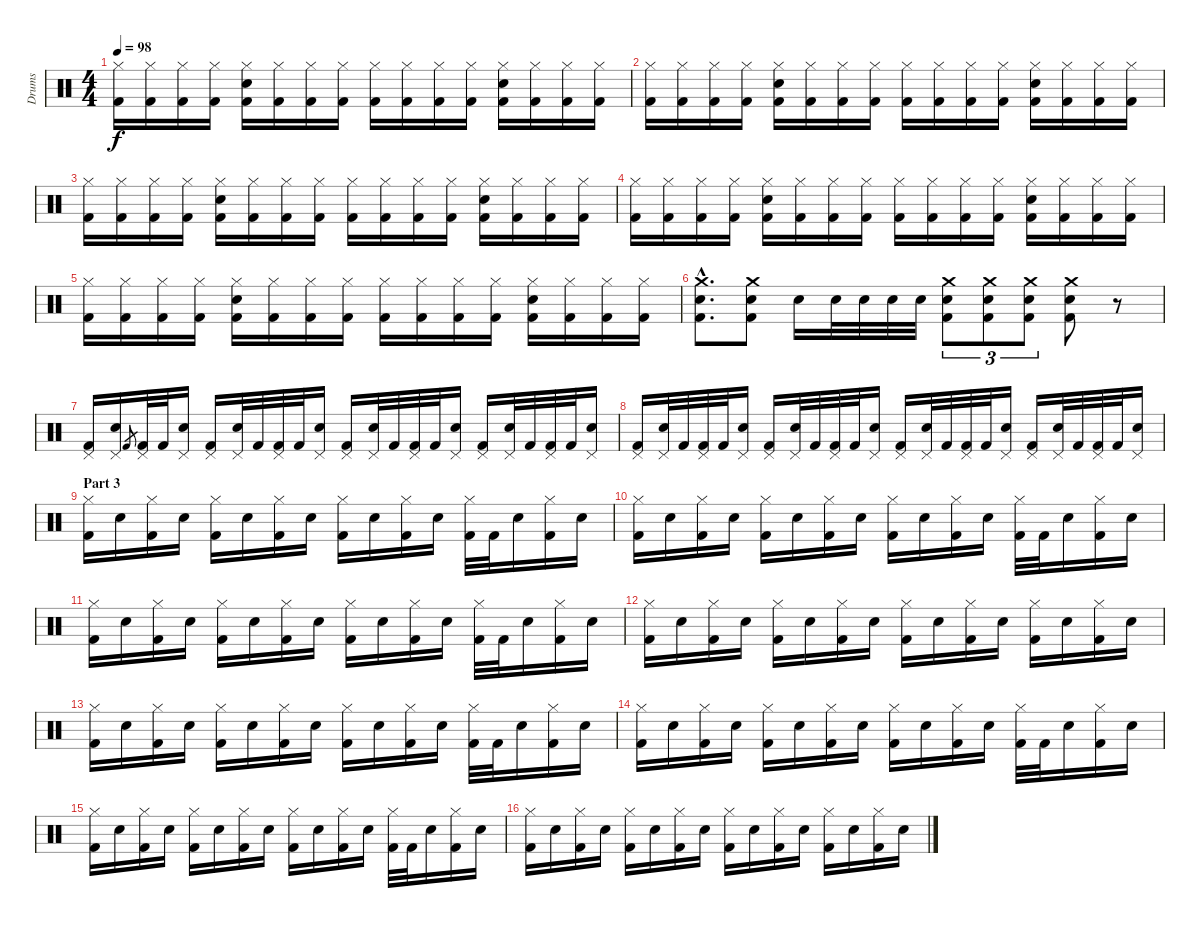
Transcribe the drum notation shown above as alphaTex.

\track ("Drums" "Drums") {instrument percussion}
\staff {score}
\articulation defaults
\ts (4 4)
\tempo 98
\clef neutral
\ks c
("Hi-Hat (closed)" "Kick (hit) 2").16{dy f} ("Hi-Hat (closed)" "Kick (hit) 2").16 ("Hi-Hat (closed)" "Kick (hit) 2").16 ("Hi-Hat (closed)" "Kick (hit) 2").16 ("Hi-Hat (closed)" "Electric Snare (hit)" "Kick (hit) 2").16 ("Hi-Hat (closed)" "Kick (hit) 2").16 ("Hi-Hat (closed)" "Kick (hit) 2").16 ("Hi-Hat (closed)" "Kick (hit) 2").16 ("Hi-Hat (closed)" "Kick (hit) 2").16 ("Hi-Hat (closed)" "Kick (hit) 2").16 ("Hi-Hat (closed)" "Kick (hit) 2").16 ("Hi-Hat (closed)" "Kick (hit) 2").16 ("Hi-Hat (closed)" "Electric Snare (hit)" "Kick (hit) 2").16 ("Hi-Hat (closed)" "Kick (hit) 2").16 ("Hi-Hat (closed)" "Kick (hit) 2").16 ("Hi-Hat (closed)" "Kick (hit) 2").16 |
("Hi-Hat (closed)" "Kick (hit) 2").16 ("Hi-Hat (closed)" "Kick (hit) 2").16 ("Hi-Hat (closed)" "Kick (hit) 2").16 ("Hi-Hat (closed)" "Kick (hit) 2").16 ("Hi-Hat (closed)" "Electric Snare (hit)" "Kick (hit) 2").16 ("Hi-Hat (closed)" "Kick (hit) 2").16 ("Hi-Hat (closed)" "Kick (hit) 2").16 ("Hi-Hat (closed)" "Kick (hit) 2").16 ("Hi-Hat (closed)" "Kick (hit) 2").16 ("Hi-Hat (closed)" "Kick (hit) 2").16 ("Hi-Hat (closed)" "Kick (hit) 2").16 ("Hi-Hat (closed)" "Kick (hit) 2").16 ("Hi-Hat (closed)" "Electric Snare (hit)" "Kick (hit) 2").16 ("Hi-Hat (closed)" "Kick (hit) 2").16 ("Hi-Hat (closed)" "Kick (hit) 2").16 ("Hi-Hat (closed)" "Kick (hit) 2").16 |
("Hi-Hat (closed)" "Kick (hit) 2").16 ("Hi-Hat (closed)" "Kick (hit) 2").16 ("Hi-Hat (closed)" "Kick (hit) 2").16 ("Hi-Hat (closed)" "Kick (hit) 2").16 ("Hi-Hat (closed)" "Electric Snare (hit)" "Kick (hit) 2").16 ("Hi-Hat (closed)" "Kick (hit) 2").16 ("Hi-Hat (closed)" "Kick (hit) 2").16 ("Hi-Hat (closed)" "Kick (hit) 2").16 ("Hi-Hat (closed)" "Kick (hit) 2").16 ("Hi-Hat (closed)" "Kick (hit) 2").16 ("Hi-Hat (closed)" "Kick (hit) 2").16 ("Hi-Hat (closed)" "Kick (hit) 2").16 ("Hi-Hat (closed)" "Electric Snare (hit)" "Kick (hit) 2").16 ("Hi-Hat (closed)" "Kick (hit) 2").16 ("Hi-Hat (closed)" "Kick (hit) 2").16 ("Hi-Hat (closed)" "Kick (hit) 2").16 |
("Hi-Hat (closed)" "Kick (hit) 2").16 ("Hi-Hat (closed)" "Kick (hit) 2").16 ("Hi-Hat (closed)" "Kick (hit) 2").16 ("Hi-Hat (closed)" "Kick (hit) 2").16 ("Hi-Hat (closed)" "Electric Snare (hit)" "Kick (hit) 2").16 ("Hi-Hat (closed)" "Kick (hit) 2").16 ("Hi-Hat (closed)" "Kick (hit) 2").16 ("Hi-Hat (closed)" "Kick (hit) 2").16 ("Hi-Hat (closed)" "Kick (hit) 2").16 ("Hi-Hat (closed)" "Kick (hit) 2").16 ("Hi-Hat (closed)" "Kick (hit) 2").16 ("Hi-Hat (closed)" "Kick (hit) 2").16 ("Hi-Hat (closed)" "Electric Snare (hit)" "Kick (hit) 2").16 ("Hi-Hat (closed)" "Kick (hit) 2").16 ("Hi-Hat (closed)" "Kick (hit) 2").16 ("Hi-Hat (closed)" "Kick (hit) 2").16 |
("Hi-Hat (closed)" "Kick (hit) 2").16 ("Hi-Hat (closed)" "Kick (hit) 2").16 ("Hi-Hat (closed)" "Kick (hit) 2").16 ("Hi-Hat (closed)" "Kick (hit) 2").16 ("Hi-Hat (closed)" "Electric Snare (hit)" "Kick (hit) 2").16 ("Hi-Hat (closed)" "Kick (hit) 2").16 ("Hi-Hat (closed)" "Kick (hit) 2").16 ("Hi-Hat (closed)" "Kick (hit) 2").16 ("Hi-Hat (closed)" "Kick (hit) 2").16 ("Hi-Hat (closed)" "Kick (hit) 2").16 ("Hi-Hat (closed)" "Kick (hit) 2").16 ("Hi-Hat (closed)" "Kick (hit) 2").16 ("Hi-Hat (closed)" "Electric Snare (hit)" "Kick (hit) 2").16 ("Hi-Hat (closed)" "Kick (hit) 2").16 ("Hi-Hat (closed)" "Kick (hit) 2").16 ("Hi-Hat (closed)" "Kick (hit) 2").16 |
("Crash medium (hit)"{hac} "Electric Snare (hit)"{hac} "Kick (hit) 2"{hac}).8{d} ("Crash medium (hit)" "Electric Snare (hit)" "Kick (hit) 2").8 "Electric Snare (hit)".16 "Electric Snare (hit)".32 "Electric Snare (hit)".32 "Electric Snare (hit)".32 "Electric Snare (hit)".32 ("Crash medium (hit)" "Electric Snare (hit)" "Kick (hit) 2").8{tu (3 2)} ("Crash medium (hit)" "Electric Snare (hit)" "Kick (hit) 2").8{tu (3 2)} ("Crash medium (hit)" "Electric Snare (hit)" "Kick (hit) 2").8{tu (3 2)} ("Crash medium (hit)" "Electric Snare (hit)" "Kick (hit) 2").8 r.8 |
("Pedal Hi-Hat (hit)" "Kick (hit) 2").16 ("Pedal Hi-Hat (hit)" "Electric Snare (hit)").16 "Kick (hit) 2".8{gr} ("Pedal Hi-Hat (hit)" "Kick (hit) 2").32 "Kick (hit) 2".32 ("Pedal Hi-Hat (hit)" "Electric Snare (hit)").16 ("Pedal Hi-Hat (hit)" "Kick (hit) 2").16 ("Pedal Hi-Hat (hit)" "Electric Snare (hit)").32 "Kick (hit) 2".32 ("Pedal Hi-Hat (hit)" "Kick (hit) 2").32 "Kick (hit) 2".32 ("Pedal Hi-Hat (hit)" "Electric Snare (hit)").16 ("Pedal Hi-Hat (hit)" "Kick (hit) 2").16 ("Pedal Hi-Hat (hit)" "Electric Snare (hit)").32 "Kick (hit) 2".32 ("Pedal Hi-Hat (hit)" "Kick (hit) 2").32 "Kick (hit) 2".32 ("Pedal Hi-Hat (hit)" "Electric Snare (hit)").16 ("Pedal Hi-Hat (hit)" "Kick (hit) 2").16 ("Pedal Hi-Hat (hit)" "Electric Snare (hit)").32 "Kick (hit) 2".32 ("Pedal Hi-Hat (hit)" "Kick (hit) 2").32 "Kick (hit) 2".32 ("Pedal Hi-Hat (hit)" "Electric Snare (hit)").16 |
("Pedal Hi-Hat (hit)" "Kick (hit) 2").16 ("Pedal Hi-Hat (hit)" "Electric Snare (hit)").32 "Kick (hit) 2".32 ("Pedal Hi-Hat (hit)" "Kick (hit) 2").32 "Kick (hit) 2".32 ("Pedal Hi-Hat (hit)" "Electric Snare (hit)").16 ("Pedal Hi-Hat (hit)" "Kick (hit) 2").16 ("Pedal Hi-Hat (hit)" "Electric Snare (hit)").32 "Kick (hit) 2".32 ("Pedal Hi-Hat (hit)" "Kick (hit) 2").32 "Kick (hit) 2".32 ("Pedal Hi-Hat (hit)" "Electric Snare (hit)").16 ("Pedal Hi-Hat (hit)" "Kick (hit) 2").16 ("Pedal Hi-Hat (hit)" "Electric Snare (hit)").32 "Kick (hit) 2".32 ("Pedal Hi-Hat (hit)" "Kick (hit) 2").32 "Kick (hit) 2".32 ("Pedal Hi-Hat (hit)" "Electric Snare (hit)").16 ("Pedal Hi-Hat (hit)" "Kick (hit) 2").16 ("Pedal Hi-Hat (hit)" "Electric Snare (hit)").32 "Kick (hit) 2".32 ("Pedal Hi-Hat (hit)" "Kick (hit) 2").32 "Kick (hit) 2".32 ("Pedal Hi-Hat (hit)" "Electric Snare (hit)").16 |
\section ("" "Part 3")
("Hi-Hat (closed)" "Kick (hit) 2").16 "Electric Snare (hit)".16 ("Hi-Hat (closed)" "Kick (hit) 2").16 "Electric Snare (hit)".16 ("Hi-Hat (closed)" "Kick (hit) 2").16 "Electric Snare (hit)".16 ("Hi-Hat (closed)" "Kick (hit) 2").16 "Electric Snare (hit)".16 ("Hi-Hat (closed)" "Kick (hit) 2").16 "Electric Snare (hit)".16 ("Hi-Hat (closed)" "Kick (hit) 2").16 "Electric Snare (hit)".16 ("Hi-Hat (closed)" "Kick (hit) 2").32 "Kick (hit) 2".32 "Electric Snare (hit)".16 ("Hi-Hat (closed)" "Kick (hit) 2").16 "Electric Snare (hit)".16 |
("Hi-Hat (closed)" "Kick (hit) 2").16 "Electric Snare (hit)".16 ("Hi-Hat (closed)" "Kick (hit) 2").16 "Electric Snare (hit)".16 ("Hi-Hat (closed)" "Kick (hit) 2").16 "Electric Snare (hit)".16 ("Hi-Hat (closed)" "Kick (hit) 2").16 "Electric Snare (hit)".16 ("Hi-Hat (closed)" "Kick (hit) 2").16 "Electric Snare (hit)".16 ("Hi-Hat (closed)" "Kick (hit) 2").16 "Electric Snare (hit)".16 ("Hi-Hat (closed)" "Kick (hit) 2").32 "Kick (hit) 2".32 "Electric Snare (hit)".16 ("Hi-Hat (closed)" "Kick (hit) 2").16 "Electric Snare (hit)".16 |
("Hi-Hat (closed)" "Kick (hit) 2").16 "Electric Snare (hit)".16 ("Hi-Hat (closed)" "Kick (hit) 2").16 "Electric Snare (hit)".16 ("Hi-Hat (closed)" "Kick (hit) 2").16 "Electric Snare (hit)".16 ("Hi-Hat (closed)" "Kick (hit) 2").16 "Electric Snare (hit)".16 ("Hi-Hat (closed)" "Kick (hit) 2").16 "Electric Snare (hit)".16 ("Hi-Hat (closed)" "Kick (hit) 2").16 "Electric Snare (hit)".16 ("Hi-Hat (closed)" "Kick (hit) 2").32 "Kick (hit) 2".32 "Electric Snare (hit)".16 ("Hi-Hat (closed)" "Kick (hit) 2").16 "Electric Snare (hit)".16 |
("Hi-Hat (closed)" "Kick (hit) 2").16 "Electric Snare (hit)".16 ("Hi-Hat (closed)" "Kick (hit) 2").16 "Electric Snare (hit)".16 ("Hi-Hat (closed)" "Kick (hit) 2").16 "Electric Snare (hit)".16 ("Hi-Hat (closed)" "Kick (hit) 2").16 "Electric Snare (hit)".16 ("Hi-Hat (closed)" "Kick (hit) 2").16 "Electric Snare (hit)".16 ("Hi-Hat (closed)" "Kick (hit) 2").16 "Electric Snare (hit)".16 ("Hi-Hat (closed)" "Kick (hit) 2").16 "Electric Snare (hit)".16 ("Hi-Hat (closed)" "Kick (hit) 2").16 "Electric Snare (hit)".16 |
("Hi-Hat (closed)" "Kick (hit) 2").16 "Electric Snare (hit)".16 ("Hi-Hat (closed)" "Kick (hit) 2").16 "Electric Snare (hit)".16 ("Hi-Hat (closed)" "Kick (hit) 2").16 "Electric Snare (hit)".16 ("Hi-Hat (closed)" "Kick (hit) 2").16 "Electric Snare (hit)".16 ("Hi-Hat (closed)" "Kick (hit) 2").16 "Electric Snare (hit)".16 ("Hi-Hat (closed)" "Kick (hit) 2").16 "Electric Snare (hit)".16 ("Hi-Hat (closed)" "Kick (hit) 2").32 "Kick (hit) 2".32 "Electric Snare (hit)".16 ("Hi-Hat (closed)" "Kick (hit) 2").16 "Electric Snare (hit)".16 |
("Hi-Hat (closed)" "Kick (hit) 2").16 "Electric Snare (hit)".16 ("Hi-Hat (closed)" "Kick (hit) 2").16 "Electric Snare (hit)".16 ("Hi-Hat (closed)" "Kick (hit) 2").16 "Electric Snare (hit)".16 ("Hi-Hat (closed)" "Kick (hit) 2").16 "Electric Snare (hit)".16 ("Hi-Hat (closed)" "Kick (hit) 2").16 "Electric Snare (hit)".16 ("Hi-Hat (closed)" "Kick (hit) 2").16 "Electric Snare (hit)".16 ("Hi-Hat (closed)" "Kick (hit) 2").32 "Kick (hit) 2".32 "Electric Snare (hit)".16 ("Hi-Hat (closed)" "Kick (hit) 2").16 "Electric Snare (hit)".16 |
("Hi-Hat (closed)" "Kick (hit) 2").16 "Electric Snare (hit)".16 ("Hi-Hat (closed)" "Kick (hit) 2").16 "Electric Snare (hit)".16 ("Hi-Hat (closed)" "Kick (hit) 2").16 "Electric Snare (hit)".16 ("Hi-Hat (closed)" "Kick (hit) 2").16 "Electric Snare (hit)".16 ("Hi-Hat (closed)" "Kick (hit) 2").16 "Electric Snare (hit)".16 ("Hi-Hat (closed)" "Kick (hit) 2").16 "Electric Snare (hit)".16 ("Hi-Hat (closed)" "Kick (hit) 2").32 "Kick (hit) 2".32 "Electric Snare (hit)".16 ("Hi-Hat (closed)" "Kick (hit) 2").16 "Electric Snare (hit)".16 |
("Hi-Hat (closed)" "Kick (hit) 2").16 "Electric Snare (hit)".16 ("Hi-Hat (closed)" "Kick (hit) 2").16 "Electric Snare (hit)".16 ("Hi-Hat (closed)" "Kick (hit) 2").16 "Electric Snare (hit)".16 ("Hi-Hat (closed)" "Kick (hit) 2").16 "Electric Snare (hit)".16 ("Hi-Hat (closed)" "Kick (hit) 2").16 "Electric Snare (hit)".16 ("Hi-Hat (closed)" "Kick (hit) 2").16 "Electric Snare (hit)".16 ("Hi-Hat (closed)" "Kick (hit) 2").16 "Electric Snare (hit)".16 ("Hi-Hat (closed)" "Kick (hit) 2").16 "Electric Snare (hit)".16
